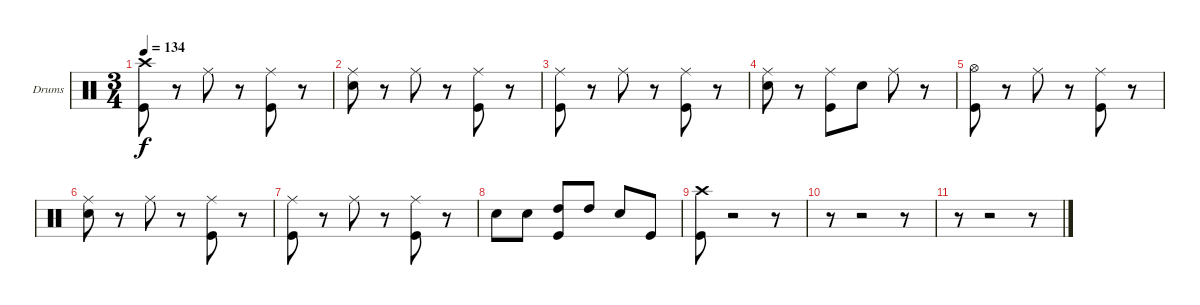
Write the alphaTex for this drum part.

\bracketExtendMode groupsimilarinstruments
\firstSystemTrackNameOrientation horizontal
\otherSystemsTrackNameOrientation horizontal
\track ("Drumkit" "Drums") {instrument percussion}
\staff {score}
\articulation defaults
\ts (3 4)
\tempo 134
\clef neutral
\ks c
("Crash high (hit)" "Kick (hit)").8{dy f} r.8 "Ride (middle)".8 r.8 ("Kick (hit)" "Ride (middle)").8 r.8 |
("Snare (hit) 2" "Ride (middle)").8 r.8 "Ride (middle)".8 r.8 ("Ride (middle)" "Kick (hit)").8 r.8 |
("Kick (hit)" "Ride (middle)").8 r.8 "Ride (middle)".8 r.8 ("Ride (middle)" "Kick (hit)").8 r.8 |
("Snare (hit) 2" "Ride (middle)").8 r.8 ("Ride (middle)" "Kick (hit)").8 "Snare (hit) 2".8 "Ride (middle)".8 r.8 |
("Hi-Hat (open)" "Kick (hit)").8 r.8 "Ride (middle)".8 r.8 ("Ride (middle)" "Kick (hit)").8 r.8 |
("Ride (middle)" "Snare (hit) 2").8 r.8 "Ride (middle)".8 r.8 ("Kick (hit)" "Ride (middle)").8 r.8 |
("Ride (middle)" "Kick (hit)").8 r.8 "Ride (middle)".8 r.8 ("Kick (hit)" "Ride (middle)").8 r.8 |
"Snare (hit) 2".8 "Snare (hit) 2".8 ("High Tom (hit)" "Kick (hit)").8 "High Tom (hit)".8 "Snare (hit) 2".8 "Kick (hit)".8 |
("Kick (hit)" "Crash high (hit)").8 r.2 r.8 |
r.8 r.2 r.8 |
r.8 r.2 r.8
